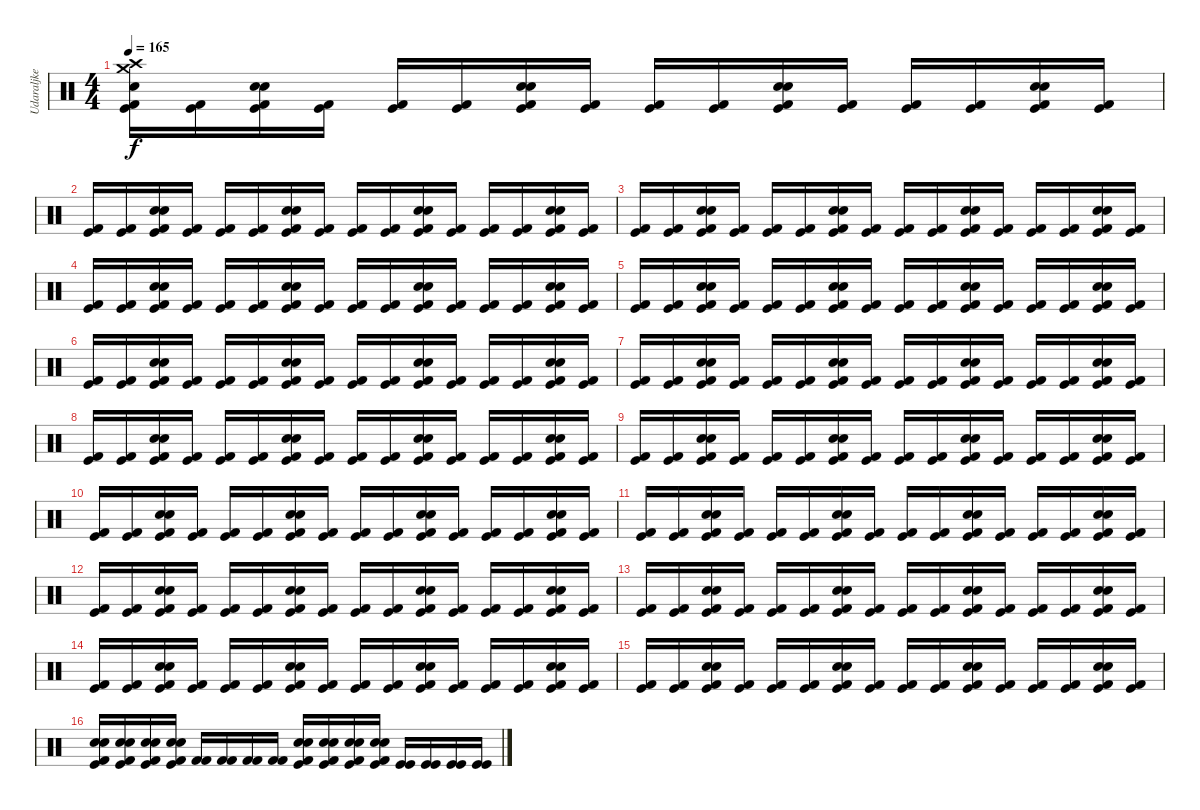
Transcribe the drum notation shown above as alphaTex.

\track ("Udaraljke" "Udaraljke") {instrument percussion}
\staff {score}
\articulation defaults
\ts (4 4)
\tempo 165
\clef neutral
\ks c
("Crash medium (hit)" "Crash high (hit)" "Snare (hit) 2" "Kick (hit) 2" "Kick (hit)").16{dy f} ("Kick (hit) 2" "Kick (hit)").16 ("Snare (hit) 2" "Snare (hit) 2" "Kick (hit) 2" "Kick (hit)").16 ("Kick (hit) 2" "Kick (hit)").16 ("Kick (hit) 2" "Kick (hit)").16 ("Kick (hit) 2" "Kick (hit)").16 ("Snare (hit) 2" "Snare (hit) 2" "Kick (hit) 2" "Kick (hit)").16 ("Kick (hit) 2" "Kick (hit)").16 ("Kick (hit) 2" "Kick (hit)").16 ("Kick (hit) 2" "Kick (hit)").16 ("Snare (hit) 2" "Snare (hit) 2" "Kick (hit) 2" "Kick (hit)").16 ("Kick (hit) 2" "Kick (hit)").16 ("Kick (hit) 2" "Kick (hit)").16 ("Kick (hit) 2" "Kick (hit)").16 ("Snare (hit) 2" "Snare (hit) 2" "Kick (hit) 2" "Kick (hit)").16 ("Kick (hit) 2" "Kick (hit)").16 |
("Kick (hit) 2" "Kick (hit)").16 ("Kick (hit) 2" "Kick (hit)").16 ("Snare (hit) 2" "Snare (hit) 2" "Kick (hit) 2" "Kick (hit)").16 ("Kick (hit) 2" "Kick (hit)").16 ("Kick (hit) 2" "Kick (hit)").16 ("Kick (hit) 2" "Kick (hit)").16 ("Snare (hit) 2" "Snare (hit) 2" "Kick (hit) 2" "Kick (hit)").16 ("Kick (hit) 2" "Kick (hit)").16 ("Kick (hit) 2" "Kick (hit)").16 ("Kick (hit) 2" "Kick (hit)").16 ("Snare (hit) 2" "Snare (hit) 2" "Kick (hit) 2" "Kick (hit)").16 ("Kick (hit) 2" "Kick (hit)").16 ("Kick (hit) 2" "Kick (hit)").16 ("Kick (hit) 2" "Kick (hit)").16 ("Snare (hit) 2" "Snare (hit) 2" "Kick (hit) 2" "Kick (hit)").16 ("Kick (hit) 2" "Kick (hit)").16 |
("Kick (hit) 2" "Kick (hit)").16 ("Kick (hit) 2" "Kick (hit)").16 ("Snare (hit) 2" "Snare (hit) 2" "Kick (hit) 2" "Kick (hit)").16 ("Kick (hit) 2" "Kick (hit)").16 ("Kick (hit) 2" "Kick (hit)").16 ("Kick (hit) 2" "Kick (hit)").16 ("Snare (hit) 2" "Snare (hit) 2" "Kick (hit) 2" "Kick (hit)").16 ("Kick (hit) 2" "Kick (hit)").16 ("Kick (hit) 2" "Kick (hit)").16 ("Kick (hit) 2" "Kick (hit)").16 ("Snare (hit) 2" "Snare (hit) 2" "Kick (hit) 2" "Kick (hit)").16 ("Kick (hit) 2" "Kick (hit)").16 ("Kick (hit) 2" "Kick (hit)").16 ("Kick (hit) 2" "Kick (hit)").16 ("Snare (hit) 2" "Snare (hit) 2" "Kick (hit) 2" "Kick (hit)").16 ("Kick (hit) 2" "Kick (hit)").16 |
("Kick (hit) 2" "Kick (hit)").16 ("Kick (hit) 2" "Kick (hit)").16 ("Snare (hit) 2" "Snare (hit) 2" "Kick (hit) 2" "Kick (hit)").16 ("Kick (hit) 2" "Kick (hit)").16 ("Kick (hit) 2" "Kick (hit)").16 ("Kick (hit) 2" "Kick (hit)").16 ("Snare (hit) 2" "Snare (hit) 2" "Kick (hit) 2" "Kick (hit)").16 ("Kick (hit) 2" "Kick (hit)").16 ("Kick (hit) 2" "Kick (hit)").16 ("Kick (hit) 2" "Kick (hit)").16 ("Snare (hit) 2" "Snare (hit) 2" "Kick (hit) 2" "Kick (hit)").16 ("Kick (hit) 2" "Kick (hit)").16 ("Kick (hit) 2" "Kick (hit)").16 ("Kick (hit) 2" "Kick (hit)").16 ("Snare (hit) 2" "Snare (hit) 2" "Kick (hit) 2" "Kick (hit)").16 ("Kick (hit) 2" "Kick (hit)").16 |
("Kick (hit) 2" "Kick (hit)").16 ("Kick (hit) 2" "Kick (hit)").16 ("Snare (hit) 2" "Snare (hit) 2" "Kick (hit) 2" "Kick (hit)").16 ("Kick (hit) 2" "Kick (hit)").16 ("Kick (hit) 2" "Kick (hit)").16 ("Kick (hit) 2" "Kick (hit)").16 ("Snare (hit) 2" "Snare (hit) 2" "Kick (hit) 2" "Kick (hit)").16 ("Kick (hit) 2" "Kick (hit)").16 ("Kick (hit) 2" "Kick (hit)").16 ("Kick (hit) 2" "Kick (hit)").16 ("Snare (hit) 2" "Snare (hit) 2" "Kick (hit) 2" "Kick (hit)").16 ("Kick (hit) 2" "Kick (hit)").16 ("Kick (hit) 2" "Kick (hit)").16 ("Kick (hit) 2" "Kick (hit)").16 ("Snare (hit) 2" "Snare (hit) 2" "Kick (hit) 2" "Kick (hit)").16 ("Kick (hit) 2" "Kick (hit)").16 |
("Kick (hit) 2" "Kick (hit)").16 ("Kick (hit) 2" "Kick (hit)").16 ("Snare (hit) 2" "Snare (hit) 2" "Kick (hit) 2" "Kick (hit)").16 ("Kick (hit) 2" "Kick (hit)").16 ("Kick (hit) 2" "Kick (hit)").16 ("Kick (hit) 2" "Kick (hit)").16 ("Snare (hit) 2" "Snare (hit) 2" "Kick (hit) 2" "Kick (hit)").16 ("Kick (hit) 2" "Kick (hit)").16 ("Kick (hit) 2" "Kick (hit)").16 ("Kick (hit) 2" "Kick (hit)").16 ("Snare (hit) 2" "Snare (hit) 2" "Kick (hit) 2" "Kick (hit)").16 ("Kick (hit) 2" "Kick (hit)").16 ("Kick (hit) 2" "Kick (hit)").16 ("Kick (hit) 2" "Kick (hit)").16 ("Snare (hit) 2" "Snare (hit) 2" "Kick (hit) 2" "Kick (hit)").16 ("Kick (hit) 2" "Kick (hit)").16 |
("Kick (hit) 2" "Kick (hit)").16 ("Kick (hit) 2" "Kick (hit)").16 ("Snare (hit) 2" "Snare (hit) 2" "Kick (hit) 2" "Kick (hit)").16 ("Kick (hit) 2" "Kick (hit)").16 ("Kick (hit) 2" "Kick (hit)").16 ("Kick (hit) 2" "Kick (hit)").16 ("Snare (hit) 2" "Snare (hit) 2" "Kick (hit) 2" "Kick (hit)").16 ("Kick (hit) 2" "Kick (hit)").16 ("Kick (hit) 2" "Kick (hit)").16 ("Kick (hit) 2" "Kick (hit)").16 ("Snare (hit) 2" "Snare (hit) 2" "Kick (hit) 2" "Kick (hit)").16 ("Kick (hit) 2" "Kick (hit)").16 ("Kick (hit) 2" "Kick (hit)").16 ("Kick (hit) 2" "Kick (hit)").16 ("Snare (hit) 2" "Snare (hit) 2" "Kick (hit) 2" "Kick (hit)").16 ("Kick (hit) 2" "Kick (hit)").16 |
("Kick (hit) 2" "Kick (hit)").16 ("Kick (hit) 2" "Kick (hit)").16 ("Snare (hit) 2" "Snare (hit) 2" "Kick (hit) 2" "Kick (hit)").16 ("Kick (hit) 2" "Kick (hit)").16 ("Kick (hit) 2" "Kick (hit)").16 ("Kick (hit) 2" "Kick (hit)").16 ("Snare (hit) 2" "Snare (hit) 2" "Kick (hit) 2" "Kick (hit)").16 ("Kick (hit) 2" "Kick (hit)").16 ("Kick (hit) 2" "Kick (hit)").16 ("Kick (hit) 2" "Kick (hit)").16 ("Snare (hit) 2" "Snare (hit) 2" "Kick (hit) 2" "Kick (hit)").16 ("Kick (hit) 2" "Kick (hit)").16 ("Kick (hit) 2" "Kick (hit)").16 ("Kick (hit) 2" "Kick (hit)").16 ("Snare (hit) 2" "Snare (hit) 2" "Kick (hit) 2" "Kick (hit)").16 ("Kick (hit) 2" "Kick (hit)").16 |
("Kick (hit) 2" "Kick (hit)").16 ("Kick (hit) 2" "Kick (hit)").16 ("Snare (hit) 2" "Snare (hit) 2" "Kick (hit) 2" "Kick (hit)").16 ("Kick (hit) 2" "Kick (hit)").16 ("Kick (hit) 2" "Kick (hit)").16 ("Kick (hit) 2" "Kick (hit)").16 ("Snare (hit) 2" "Snare (hit) 2" "Kick (hit) 2" "Kick (hit)").16 ("Kick (hit) 2" "Kick (hit)").16 ("Kick (hit) 2" "Kick (hit)").16 ("Kick (hit) 2" "Kick (hit)").16 ("Snare (hit) 2" "Snare (hit) 2" "Kick (hit) 2" "Kick (hit)").16 ("Kick (hit) 2" "Kick (hit)").16 ("Kick (hit) 2" "Kick (hit)").16 ("Kick (hit) 2" "Kick (hit)").16 ("Snare (hit) 2" "Snare (hit) 2" "Kick (hit) 2" "Kick (hit)").16 ("Kick (hit) 2" "Kick (hit)").16 |
("Kick (hit) 2" "Kick (hit)").16 ("Kick (hit) 2" "Kick (hit)").16 ("Snare (hit) 2" "Snare (hit) 2" "Kick (hit) 2" "Kick (hit)").16 ("Kick (hit) 2" "Kick (hit)").16 ("Kick (hit) 2" "Kick (hit)").16 ("Kick (hit) 2" "Kick (hit)").16 ("Snare (hit) 2" "Snare (hit) 2" "Kick (hit) 2" "Kick (hit)").16 ("Kick (hit) 2" "Kick (hit)").16 ("Kick (hit) 2" "Kick (hit)").16 ("Kick (hit) 2" "Kick (hit)").16 ("Snare (hit) 2" "Snare (hit) 2" "Kick (hit) 2" "Kick (hit)").16 ("Kick (hit) 2" "Kick (hit)").16 ("Kick (hit) 2" "Kick (hit)").16 ("Kick (hit) 2" "Kick (hit)").16 ("Snare (hit) 2" "Snare (hit) 2" "Kick (hit) 2" "Kick (hit)").16 ("Kick (hit) 2" "Kick (hit)").16 |
("Kick (hit) 2" "Kick (hit)").16 ("Kick (hit) 2" "Kick (hit)").16 ("Snare (hit) 2" "Snare (hit) 2" "Kick (hit) 2" "Kick (hit)").16 ("Kick (hit) 2" "Kick (hit)").16 ("Kick (hit) 2" "Kick (hit)").16 ("Kick (hit) 2" "Kick (hit)").16 ("Snare (hit) 2" "Snare (hit) 2" "Kick (hit) 2" "Kick (hit)").16 ("Kick (hit) 2" "Kick (hit)").16 ("Kick (hit) 2" "Kick (hit)").16 ("Kick (hit) 2" "Kick (hit)").16 ("Snare (hit) 2" "Snare (hit) 2" "Kick (hit) 2" "Kick (hit)").16 ("Kick (hit) 2" "Kick (hit)").16 ("Kick (hit) 2" "Kick (hit)").16 ("Kick (hit) 2" "Kick (hit)").16 ("Snare (hit) 2" "Snare (hit) 2" "Kick (hit) 2" "Kick (hit)").16 ("Kick (hit) 2" "Kick (hit)").16 |
("Kick (hit) 2" "Kick (hit)").16 ("Kick (hit) 2" "Kick (hit)").16 ("Snare (hit) 2" "Snare (hit) 2" "Kick (hit) 2" "Kick (hit)").16 ("Kick (hit) 2" "Kick (hit)").16 ("Kick (hit) 2" "Kick (hit)").16 ("Kick (hit) 2" "Kick (hit)").16 ("Snare (hit) 2" "Snare (hit) 2" "Kick (hit) 2" "Kick (hit)").16 ("Kick (hit) 2" "Kick (hit)").16 ("Kick (hit) 2" "Kick (hit)").16 ("Kick (hit) 2" "Kick (hit)").16 ("Snare (hit) 2" "Snare (hit) 2" "Kick (hit) 2" "Kick (hit)").16 ("Kick (hit) 2" "Kick (hit)").16 ("Kick (hit) 2" "Kick (hit)").16 ("Kick (hit) 2" "Kick (hit)").16 ("Snare (hit) 2" "Snare (hit) 2" "Kick (hit) 2" "Kick (hit)").16 ("Kick (hit) 2" "Kick (hit)").16 |
("Kick (hit) 2" "Kick (hit)").16 ("Kick (hit) 2" "Kick (hit)").16 ("Snare (hit) 2" "Snare (hit) 2" "Kick (hit) 2" "Kick (hit)").16 ("Kick (hit) 2" "Kick (hit)").16 ("Kick (hit) 2" "Kick (hit)").16 ("Kick (hit) 2" "Kick (hit)").16 ("Snare (hit) 2" "Snare (hit) 2" "Kick (hit) 2" "Kick (hit)").16 ("Kick (hit) 2" "Kick (hit)").16 ("Kick (hit) 2" "Kick (hit)").16 ("Kick (hit) 2" "Kick (hit)").16 ("Snare (hit) 2" "Snare (hit) 2" "Kick (hit) 2" "Kick (hit)").16 ("Kick (hit) 2" "Kick (hit)").16 ("Kick (hit) 2" "Kick (hit)").16 ("Kick (hit) 2" "Kick (hit)").16 ("Snare (hit) 2" "Snare (hit) 2" "Kick (hit) 2" "Kick (hit)").16 ("Kick (hit) 2" "Kick (hit)").16 |
("Kick (hit) 2" "Kick (hit)").16 ("Kick (hit) 2" "Kick (hit)").16 ("Snare (hit) 2" "Snare (hit) 2" "Kick (hit) 2" "Kick (hit)").16 ("Kick (hit) 2" "Kick (hit)").16 ("Kick (hit) 2" "Kick (hit)").16 ("Kick (hit) 2" "Kick (hit)").16 ("Snare (hit) 2" "Snare (hit) 2" "Kick (hit) 2" "Kick (hit)").16 ("Kick (hit) 2" "Kick (hit)").16 ("Kick (hit) 2" "Kick (hit)").16 ("Kick (hit) 2" "Kick (hit)").16 ("Snare (hit) 2" "Snare (hit) 2" "Kick (hit) 2" "Kick (hit)").16 ("Kick (hit) 2" "Kick (hit)").16 ("Kick (hit) 2" "Kick (hit)").16 ("Kick (hit) 2" "Kick (hit)").16 ("Snare (hit) 2" "Snare (hit) 2" "Kick (hit) 2" "Kick (hit)").16 ("Kick (hit) 2" "Kick (hit)").16 |
("Kick (hit) 2" "Kick (hit)").16 ("Kick (hit) 2" "Kick (hit)").16 ("Snare (hit) 2" "Snare (hit) 2" "Kick (hit) 2" "Kick (hit)").16 ("Kick (hit) 2" "Kick (hit)").16 ("Kick (hit) 2" "Kick (hit)").16 ("Kick (hit) 2" "Kick (hit)").16 ("Snare (hit) 2" "Snare (hit) 2" "Kick (hit) 2" "Kick (hit)").16 ("Kick (hit) 2" "Kick (hit)").16 ("Kick (hit) 2" "Kick (hit)").16 ("Kick (hit) 2" "Kick (hit)").16 ("Snare (hit) 2" "Snare (hit) 2" "Kick (hit) 2" "Kick (hit)").16 ("Kick (hit) 2" "Kick (hit)").16 ("Kick (hit) 2" "Kick (hit)").16 ("Kick (hit) 2" "Kick (hit)").16 ("Snare (hit) 2" "Snare (hit) 2" "Kick (hit) 2" "Kick (hit)").16 ("Kick (hit) 2" "Kick (hit)").16 |
("Snare (hit) 2" "Snare (hit) 2" "Kick (hit) 2" "Kick (hit)").16 ("Snare (hit) 2" "Snare (hit) 2" "Kick (hit) 2" "Kick (hit)").16 ("Snare (hit) 2" "Snare (hit) 2" "Kick (hit) 2" "Kick (hit)").16 ("Snare (hit) 2" "Snare (hit) 2" "Kick (hit) 2" "Kick (hit)").16 ("Kick (hit) 2" "Kick (hit) 2").16 ("Kick (hit) 2" "Kick (hit) 2").16 ("Kick (hit) 2" "Kick (hit) 2").16 ("Kick (hit) 2" "Kick (hit) 2").16 ("Snare (hit) 2" "Snare (hit) 2" "Kick (hit) 2" "Kick (hit)").16 ("Snare (hit) 2" "Snare (hit) 2" "Kick (hit) 2" "Kick (hit)").16 ("Snare (hit) 2" "Snare (hit) 2" "Kick (hit) 2" "Kick (hit)").16 ("Snare (hit) 2" "Snare (hit) 2" "Kick (hit) 2" "Kick (hit)").16 ("Kick (hit)" "Kick (hit)").16 ("Kick (hit)" "Kick (hit)").16 ("Kick (hit)" "Kick (hit)").16 ("Kick (hit)" "Kick (hit)").16
